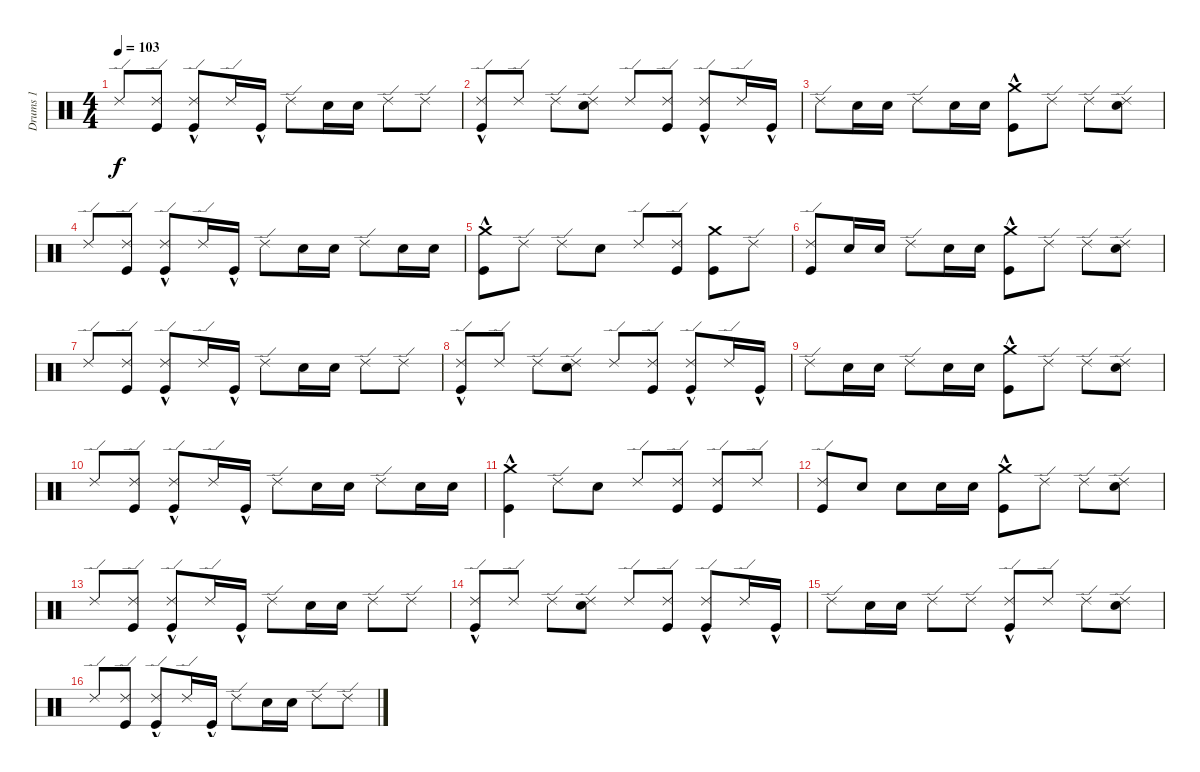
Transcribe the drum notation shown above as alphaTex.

\track ("Drums 1" "Drums 1") {instrument percussion}
\staff {score}
\articulation defaults
\ts (4 4)
\tempo 103
\clef neutral
\ks c "Ride (edge) 2".8{dy f}
("Kick (hit)" "Ride (edge) 2").8 ("Kick (hit)"{hac} "Ride (edge) 2").8 "Ride (edge) 2".16 "Kick (hit)"{hac}.16 "Ride (edge) 2".8 "Electric Snare (hit)".16 "Electric Snare (hit)".16 "Ride (edge) 2".8 "Ride (edge) 2".8 |
("Kick (hit)"{hac} "Ride (edge) 2").8 "Ride (edge) 2".8 "Ride (edge) 2".8 ("Electric Snare (hit)" "Ride (edge) 2").8 "Ride (edge) 2".8 ("Kick (hit)" "Ride (edge) 2").8 ("Kick (hit)"{hac} "Ride (edge) 2").8 "Ride (edge) 2".16 "Kick (hit)"{hac}.16 |
"Ride (edge) 2".8 "Electric Snare (hit)".16 "Electric Snare (hit)".16 "Ride (edge) 2".8 "Electric Snare (hit)".16 "Electric Snare (hit)".16 ("Kick (hit)"{hac} "Crash medium (hit)").8 "Ride (edge) 2".8 "Ride (edge) 2".8 ("Electric Snare (hit)" "Ride (edge) 2").8 |
"Ride (edge) 2".8 ("Kick (hit)" "Ride (edge) 2").8 ("Kick (hit)"{hac} "Ride (edge) 2").8 "Ride (edge) 2".16 "Kick (hit)"{hac}.16 "Ride (edge) 2".8 "Electric Snare (hit)".16 "Electric Snare (hit)".16 "Ride (edge) 2".8 "Electric Snare (hit)".16 "Electric Snare (hit)".16 |
("Kick (hit)"{hac} "Crash medium (hit)").8 "Ride (edge) 2".8 "Ride (edge) 2".8 "Electric Snare (hit)".8 "Ride (edge) 2".8 ("Kick (hit)" "Ride (edge) 2").8 ("Kick (hit)" "Crash medium (hit)").8 "Ride (edge) 2".8 |
("Kick (hit)" "Ride (edge) 2").8 "Electric Snare (hit)".16 "Electric Snare (hit)".16 "Ride (edge) 2".8 "Electric Snare (hit)".16 "Electric Snare (hit)".16 ("Kick (hit)"{hac} "Crash medium (hit)").8 "Ride (edge) 2".8 "Ride (edge) 2".8 ("Electric Snare (hit)" "Ride (edge) 2").8 |
"Ride (edge) 2".8 ("Kick (hit)" "Ride (edge) 2").8 ("Kick (hit)"{hac} "Ride (edge) 2").8 "Ride (edge) 2".16 "Kick (hit)"{hac}.16 "Ride (edge) 2".8 "Electric Snare (hit)".16 "Electric Snare (hit)".16 "Ride (edge) 2".8 "Ride (edge) 2".8 |
("Kick (hit)"{hac} "Ride (edge) 2").8 "Ride (edge) 2".8 "Ride (edge) 2".8 ("Electric Snare (hit)" "Ride (edge) 2").8 "Ride (edge) 2".8 ("Kick (hit)" "Ride (edge) 2").8 ("Kick (hit)"{hac} "Ride (edge) 2").8 "Ride (edge) 2".16 "Kick (hit)"{hac}.16 |
"Ride (edge) 2".8 "Electric Snare (hit)".16 "Electric Snare (hit)".16 "Ride (edge) 2".8 "Electric Snare (hit)".16 "Electric Snare (hit)".16 ("Kick (hit)"{hac} "Crash medium (hit)").8 "Ride (edge) 2".8 "Ride (edge) 2".8 ("Electric Snare (hit)" "Ride (edge) 2").8 |
"Ride (edge) 2".8 ("Kick (hit)" "Ride (edge) 2").8 ("Kick (hit)"{hac} "Ride (edge) 2").8 "Ride (edge) 2".16 "Kick (hit)"{hac}.16 "Ride (edge) 2".8 "Electric Snare (hit)".16 "Electric Snare (hit)".16 "Ride (edge) 2".8 "Electric Snare (hit)".16 "Electric Snare (hit)".16 |
("Kick (hit)"{hac} "Crash medium (hit)").4 "Ride (edge) 2".8 "Electric Snare (hit)".8 "Ride (edge) 2".8 ("Kick (hit)" "Ride (edge) 2").8 ("Ride (edge) 2" "Kick (hit)").8 "Ride (edge) 2".8 |
("Ride (edge) 2" "Kick (hit)").8 "Electric Snare (hit)".8 "Electric Snare (hit)".8 "Electric Snare (hit)".16 "Electric Snare (hit)".16 ("Kick (hit)"{hac} "Crash medium (hit)").8 "Ride (edge) 2".8 "Ride (edge) 2".8 ("Electric Snare (hit)" "Ride (edge) 2").8 |
"Ride (edge) 2".8 ("Kick (hit)" "Ride (edge) 2").8 ("Kick (hit)"{hac} "Ride (edge) 2").8 "Ride (edge) 2".16 "Kick (hit)"{hac}.16 "Ride (edge) 2".8 "Electric Snare (hit)".16 "Electric Snare (hit)".16 "Ride (edge) 2".8 "Ride (edge) 2".8 |
("Kick (hit)"{hac} "Ride (edge) 2").8 "Ride (edge) 2".8 "Ride (edge) 2".8 ("Electric Snare (hit)" "Ride (edge) 2").8 "Ride (edge) 2".8 ("Kick (hit)" "Ride (edge) 2").8 ("Kick (hit)"{hac} "Ride (edge) 2").8 "Ride (edge) 2".16 "Kick (hit)"{hac}.16 |
"Ride (edge) 2".8 "Electric Snare (hit)".16 "Electric Snare (hit)".16 "Ride (edge) 2".8 "Ride (edge) 2".8 ("Kick (hit)"{hac} "Ride (edge) 2").8 "Ride (edge) 2".8 "Ride (edge) 2".8 ("Electric Snare (hit)" "Ride (edge) 2").8 |
"Ride (edge) 2".8 ("Kick (hit)" "Ride (edge) 2").8 ("Kick (hit)"{hac} "Ride (edge) 2").8 "Ride (edge) 2".16 "Kick (hit)"{hac}.16 "Ride (edge) 2".8 "Electric Snare (hit)".16 "Electric Snare (hit)".16 "Ride (edge) 2".8 "Ride (edge) 2".8
